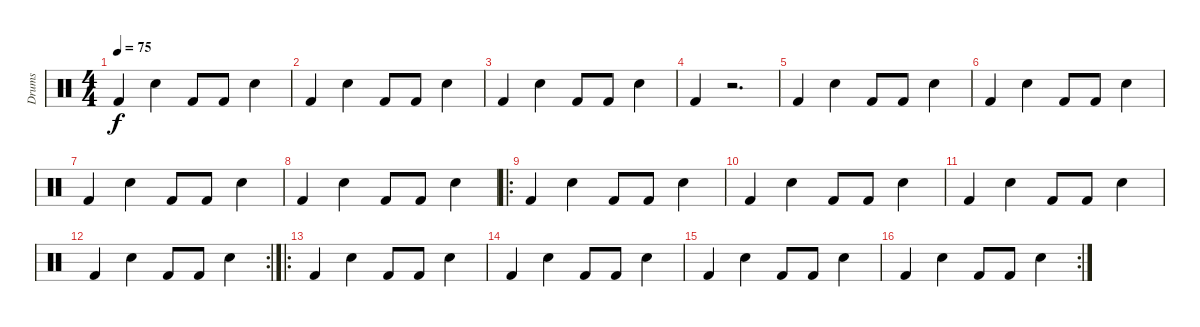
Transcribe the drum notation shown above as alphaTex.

\track ("Drums" "Drums") {instrument percussion}
\staff {score}
\articulation defaults
\ts (4 4)
\tempo 75
\clef neutral
\ks c "Kick (hit) 2".4{dy f} "Snare (hit) 2".4 "Kick (hit) 2".8 "Kick (hit) 2".8 "Snare (hit) 2".4
|
"Kick (hit) 2".4 "Snare (hit) 2".4 "Kick (hit) 2".8 "Kick (hit) 2".8 "Snare (hit) 2".4 |
"Kick (hit) 2".4 "Snare (hit) 2".4 "Kick (hit) 2".8 "Kick (hit) 2".8 "Snare (hit) 2".4 |
"Kick (hit) 2".4 r.2{d} |
"Kick (hit) 2".4 "Snare (hit) 2".4 "Kick (hit) 2".8 "Kick (hit) 2".8 "Snare (hit) 2".4 |
"Kick (hit) 2".4 "Snare (hit) 2".4 "Kick (hit) 2".8 "Kick (hit) 2".8 "Snare (hit) 2".4 |
"Kick (hit) 2".4 "Snare (hit) 2".4 "Kick (hit) 2".8 "Kick (hit) 2".8 "Snare (hit) 2".4 |
"Kick (hit) 2".4 "Snare (hit) 2".4 "Kick (hit) 2".8 "Kick (hit) 2".8 "Snare (hit) 2".4 |
\ro "Kick (hit) 2".4 "Snare (hit) 2".4 "Kick (hit) 2".8 "Kick (hit) 2".8 "Snare (hit) 2".4
|
"Kick (hit) 2".4 "Snare (hit) 2".4 "Kick (hit) 2".8 "Kick (hit) 2".8 "Snare (hit) 2".4 |
"Kick (hit) 2".4 "Snare (hit) 2".4 "Kick (hit) 2".8 "Kick (hit) 2".8 "Snare (hit) 2".4 |
\rc 2 "Kick (hit) 2".4 "Snare (hit) 2".4 "Kick (hit) 2".8 "Kick (hit) 2".8 "Snare (hit) 2".4
|
\ro "Kick (hit) 2".4 "Snare (hit) 2".4 "Kick (hit) 2".8 "Kick (hit) 2".8 "Snare (hit) 2".4
|
"Kick (hit) 2".4 "Snare (hit) 2".4 "Kick (hit) 2".8 "Kick (hit) 2".8 "Snare (hit) 2".4 |
"Kick (hit) 2".4 "Snare (hit) 2".4 "Kick (hit) 2".8 "Kick (hit) 2".8 "Snare (hit) 2".4 |
\rc 2 "Kick (hit) 2".4 "Snare (hit) 2".4 "Kick (hit) 2".8 "Kick (hit) 2".8 "Snare (hit) 2".4
